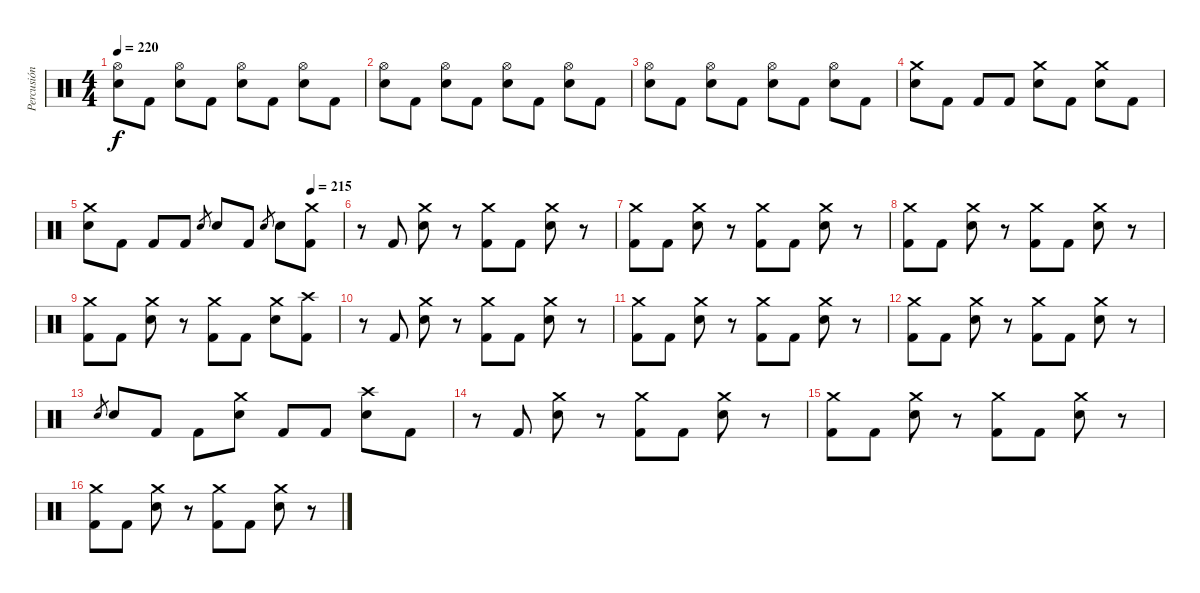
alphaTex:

\track ("Percusión" "Percusión") {instrument percussion}
\staff {score}
\articulation defaults
\ts (4 4)
\tempo 220
\clef neutral
\ks c
("Hi-Hat (open)" "Electric Snare (hit)").8{dy f} "Kick (hit) 2".8 ("Hi-Hat (open)" "Electric Snare (hit)").8 "Kick (hit) 2".8 ("Hi-Hat (open)" "Electric Snare (hit)").8 "Kick (hit) 2".8 ("Hi-Hat (open)" "Electric Snare (hit)").8 "Kick (hit) 2".8 |
("Hi-Hat (open)" "Electric Snare (hit)").8 "Kick (hit) 2".8 ("Hi-Hat (open)" "Electric Snare (hit)").8 "Kick (hit) 2".8 ("Hi-Hat (open)" "Electric Snare (hit)").8 "Kick (hit) 2".8 ("Hi-Hat (open)" "Electric Snare (hit)").8 "Kick (hit) 2".8 |
("Hi-Hat (open)" "Electric Snare (hit)").8 "Kick (hit) 2".8 ("Hi-Hat (open)" "Electric Snare (hit)").8 "Kick (hit) 2".8 ("Hi-Hat (open)" "Electric Snare (hit)").8 "Kick (hit) 2".8 ("Hi-Hat (open)" "Electric Snare (hit)").8 "Kick (hit) 2".8 |
("Crash medium (hit)" "Electric Snare (hit)").8 "Kick (hit) 2".8 "Kick (hit) 2".8 "Kick (hit) 2".8 ("Crash medium (hit)" "Electric Snare (hit)").8 "Kick (hit) 2".8 ("Crash medium (hit)" "Electric Snare (hit)").8 "Kick (hit) 2".8 |
\tempo (215 0.875)
("Crash medium (hit)" "Electric Snare (hit)").8 "Kick (hit) 2".8 "Kick (hit) 2".8 "Kick (hit) 2".8 "Electric Snare (hit)".8{gr} "Electric Snare (hit)".8 "Kick (hit) 2".8 "Electric Snare (hit)".8{gr} "Electric Snare (hit)".8 ("Crash medium (hit)" "Kick (hit) 2").8 |
r.8 "Kick (hit) 2".8 ("Crash medium (hit)" "Electric Snare (hit)").8 r.8 ("Crash medium (hit)" "Kick (hit) 2").8 "Kick (hit) 2".8 ("Crash medium (hit)" "Electric Snare (hit)").8 r.8 |
("Crash medium (hit)" "Kick (hit) 2").8 "Kick (hit) 2".8 ("Crash medium (hit)" "Electric Snare (hit)").8 r.8 ("Crash medium (hit)" "Kick (hit) 2").8 "Kick (hit) 2".8 ("Crash medium (hit)" "Electric Snare (hit)").8 r.8 |
("Crash medium (hit)" "Kick (hit) 2").8 "Kick (hit) 2".8 ("Crash medium (hit)" "Electric Snare (hit)").8 r.8 ("Crash medium (hit)" "Kick (hit) 2").8 "Kick (hit) 2".8 ("Crash medium (hit)" "Electric Snare (hit)").8 r.8 |
("Crash medium (hit)" "Kick (hit) 2").8 "Kick (hit) 2".8 ("Crash medium (hit)" "Electric Snare (hit)").8 r.8 ("Crash medium (hit)" "Kick (hit) 2").8 "Kick (hit) 2".8 ("Crash medium (hit)" "Electric Snare (hit)").8 ("Crash high (hit)" "Kick (hit) 2").8 |
r.8 "Kick (hit) 2".8 ("Crash medium (hit)" "Electric Snare (hit)").8 r.8 ("Crash medium (hit)" "Kick (hit) 2").8 "Kick (hit) 2".8 ("Crash medium (hit)" "Electric Snare (hit)").8 r.8 |
("Crash medium (hit)" "Kick (hit) 2").8 "Kick (hit) 2".8 ("Crash medium (hit)" "Electric Snare (hit)").8 r.8 ("Crash medium (hit)" "Kick (hit) 2").8 "Kick (hit) 2".8 ("Crash medium (hit)" "Electric Snare (hit)").8 r.8 |
("Crash medium (hit)" "Kick (hit) 2").8 "Kick (hit) 2".8 ("Crash medium (hit)" "Electric Snare (hit)").8 r.8 ("Crash medium (hit)" "Kick (hit) 2").8 "Kick (hit) 2".8 ("Crash medium (hit)" "Electric Snare (hit)").8 r.8 |
"Electric Snare (hit)".8{gr} "Electric Snare (hit)".8 "Kick (hit) 2".8 "Kick (hit) 2".8 ("Crash medium (hit)" "Electric Snare (hit)").8 "Kick (hit) 2".8 "Kick (hit) 2".8 ("Crash high (hit)" "Electric Snare (hit)").8 "Kick (hit) 2".8 |
r.8 "Kick (hit) 2".8 ("Crash medium (hit)" "Electric Snare (hit)").8 r.8 ("Crash medium (hit)" "Kick (hit) 2").8 "Kick (hit) 2".8 ("Crash medium (hit)" "Electric Snare (hit)").8 r.8 |
("Crash medium (hit)" "Kick (hit) 2").8 "Kick (hit) 2".8 ("Crash medium (hit)" "Electric Snare (hit)").8 r.8 ("Crash medium (hit)" "Kick (hit) 2").8 "Kick (hit) 2".8 ("Crash medium (hit)" "Electric Snare (hit)").8 r.8 |
("Crash medium (hit)" "Kick (hit) 2").8 "Kick (hit) 2".8 ("Crash medium (hit)" "Electric Snare (hit)").8 r.8 ("Crash medium (hit)" "Kick (hit) 2").8 "Kick (hit) 2".8 ("Crash medium (hit)" "Electric Snare (hit)").8 r.8
